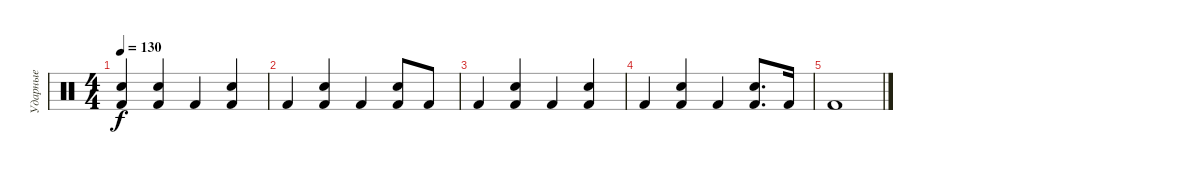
\track ("Ударные" "Ударные") {instrument percussion}
\staff {score}
\articulation defaults
\ts (4 4)
\tempo 130
\clef neutral
\ks c
("Hand Clap (hit)" "Kick (hit) 2").4{dy f} ("Hand Clap (hit)" "Kick (hit) 2").4 "Kick (hit) 2".4 ("Hand Clap (hit)" "Kick (hit) 2").4 |
"Kick (hit) 2".4 ("Hand Clap (hit)" "Kick (hit) 2").4 "Kick (hit) 2".4 ("Hand Clap (hit)" "Kick (hit) 2").8 "Kick (hit) 2".8 |
"Kick (hit) 2".4 ("Hand Clap (hit)" "Kick (hit) 2").4 "Kick (hit) 2".4 ("Hand Clap (hit)" "Kick (hit) 2").4 |
"Kick (hit) 2".4 ("Hand Clap (hit)" "Kick (hit) 2").4 "Kick (hit) 2".4 ("Hand Clap (hit)" "Kick (hit) 2").8{d} "Kick (hit) 2".16 |
"Kick (hit) 2".1
